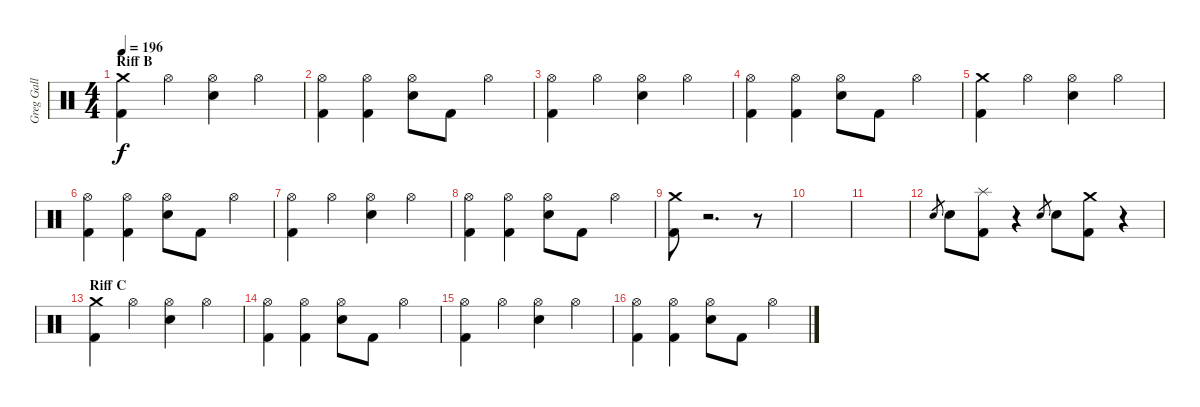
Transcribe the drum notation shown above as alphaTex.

\track ("Greg Gall" "Greg Gall") {instrument percussion}
\staff {score}
\articulation defaults
\ts (4 4)
\section ("" "Riff B")
\tempo 196
\clef neutral
\ks c
("Crash medium (hit)" "Kick (hit) 2").4{dy f} "Hi-Hat (open)".4 ("Hi-Hat (open)" "Electric Snare (hit)").4 "Hi-Hat (open)".4 |
("Hi-Hat (open)" "Kick (hit) 2").4 ("Hi-Hat (open)" "Kick (hit) 2").4 ("Hi-Hat (open)" "Electric Snare (hit)").8 "Kick (hit) 2".8 "Hi-Hat (open)".4 |
("Hi-Hat (open)" "Kick (hit) 2").4 "Hi-Hat (open)".4 ("Hi-Hat (open)" "Electric Snare (hit)").4 "Hi-Hat (open)".4 |
("Hi-Hat (open)" "Kick (hit) 2").4 ("Hi-Hat (open)" "Kick (hit) 2").4 ("Hi-Hat (open)" "Electric Snare (hit)").8 "Kick (hit) 2".8 "Hi-Hat (open)".4 |
("Crash medium (hit)" "Kick (hit) 2").4 "Hi-Hat (open)".4 ("Hi-Hat (open)" "Electric Snare (hit)").4 "Hi-Hat (open)".4 |
("Hi-Hat (open)" "Kick (hit) 2").4 ("Hi-Hat (open)" "Kick (hit) 2").4 ("Hi-Hat (open)" "Electric Snare (hit)").8 "Kick (hit) 2".8 "Hi-Hat (open)".4 |
("Hi-Hat (open)" "Kick (hit) 2").4 "Hi-Hat (open)".4 ("Hi-Hat (open)" "Electric Snare (hit)").4 "Hi-Hat (open)".4 |
("Hi-Hat (open)" "Kick (hit) 2").4 ("Hi-Hat (open)" "Kick (hit) 2").4 ("Hi-Hat (open)" "Electric Snare (hit)").8 "Kick (hit) 2".8 "Hi-Hat (open)".4 |
("Crash medium (hit)" "Kick (hit) 2").8 r.2{d volume 0} r.8 |
|
|
"Electric Snare (hit)".8{gr} "Electric Snare (hit)".8 ("Splash (hit)" "Kick (hit) 2").8 r.4 "Electric Snare (hit)".8{gr} "Electric Snare (hit)".8 ("Crash medium (hit)" "Kick (hit) 2").8 r.4 |
\section ("" "Riff C")
("Crash medium (hit)" "Kick (hit) 2").4 "Hi-Hat (open)".4 ("Hi-Hat (open)" "Electric Snare (hit)").4 "Hi-Hat (open)".4 |
("Hi-Hat (open)" "Kick (hit) 2").4 ("Hi-Hat (open)" "Kick (hit) 2").4 ("Hi-Hat (open)" "Electric Snare (hit)").8 "Kick (hit) 2".8 "Hi-Hat (open)".4 |
("Hi-Hat (open)" "Kick (hit) 2").4 "Hi-Hat (open)".4 ("Hi-Hat (open)" "Electric Snare (hit)").4 "Hi-Hat (open)".4 |
("Hi-Hat (open)" "Kick (hit) 2").4 ("Hi-Hat (open)" "Kick (hit) 2").4 ("Hi-Hat (open)" "Electric Snare (hit)").8 "Kick (hit) 2".8 "Hi-Hat (open)".4
